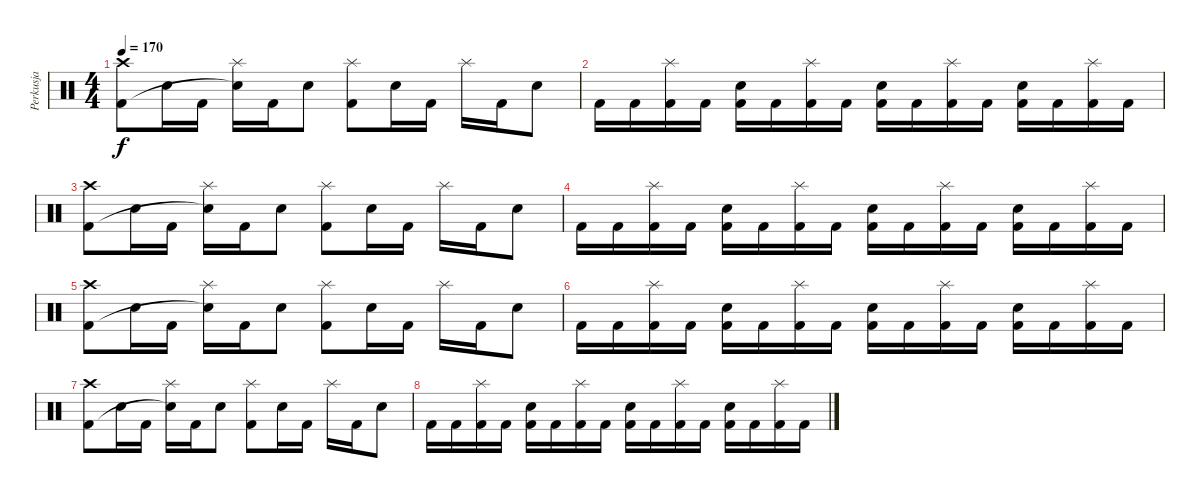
\track ("Perkusja" "Perkusja") {instrument percussion}
\staff {score}
\articulation defaults
\ts (4 4)
\tempo 170
\clef neutral
\ks c
("Crash high (hit)" "Kick (hit) 2").8{dy f} "Snare (hit) 2".16 "Kick (hit) 2".16 ("Splash (hit)" "Snare (hit)"{t}).16 "Kick (hit) 2".16 "Snare (hit) 2".8 ("Splash (hit)" "Kick (hit) 2").8 "Snare (hit) 2".16 "Kick (hit) 2".16 "Splash (hit)".16 "Kick (hit) 2".16 "Snare (hit) 2".8 |
"Kick (hit) 2".16 "Kick (hit) 2".16 ("Splash (hit)" "Kick (hit) 2").16 "Kick (hit) 2".16 ("Snare (hit) 2" "Kick (hit) 2").16 "Kick (hit) 2".16 ("Splash (hit)" "Kick (hit) 2").16 "Kick (hit) 2".16 ("Snare (hit) 2" "Kick (hit) 2").16 "Kick (hit) 2".16 ("Splash (hit)" "Kick (hit) 2").16 "Kick (hit) 2".16 ("Snare (hit) 2" "Kick (hit) 2").16 "Kick (hit) 2".16 ("Splash (hit)" "Kick (hit) 2").16 "Kick (hit) 2".16 |
("Crash high (hit)" "Kick (hit) 2").8 "Snare (hit) 2".16 "Kick (hit) 2".16 ("Splash (hit)" "Snare (hit)"{t}).16 "Kick (hit) 2".16 "Snare (hit) 2".8 ("Splash (hit)" "Kick (hit) 2").8 "Snare (hit) 2".16 "Kick (hit) 2".16 "Splash (hit)".16 "Kick (hit) 2".16 "Snare (hit) 2".8 |
"Kick (hit) 2".16 "Kick (hit) 2".16 ("Splash (hit)" "Kick (hit) 2").16 "Kick (hit) 2".16 ("Snare (hit) 2" "Kick (hit) 2").16 "Kick (hit) 2".16 ("Splash (hit)" "Kick (hit) 2").16 "Kick (hit) 2".16 ("Snare (hit) 2" "Kick (hit) 2").16 "Kick (hit) 2".16 ("Splash (hit)" "Kick (hit) 2").16 "Kick (hit) 2".16 ("Snare (hit) 2" "Kick (hit) 2").16 "Kick (hit) 2".16 ("Splash (hit)" "Kick (hit) 2").16 "Kick (hit) 2".16 |
("Crash high (hit)" "Kick (hit) 2").8 "Snare (hit) 2".16 "Kick (hit) 2".16 ("Splash (hit)" "Snare (hit)"{t}).16 "Kick (hit) 2".16 "Snare (hit) 2".8 ("Splash (hit)" "Kick (hit) 2").8 "Snare (hit) 2".16 "Kick (hit) 2".16 "Splash (hit)".16 "Kick (hit) 2".16 "Snare (hit) 2".8 |
"Kick (hit) 2".16 "Kick (hit) 2".16 ("Splash (hit)" "Kick (hit) 2").16 "Kick (hit) 2".16 ("Snare (hit) 2" "Kick (hit) 2").16 "Kick (hit) 2".16 ("Splash (hit)" "Kick (hit) 2").16 "Kick (hit) 2".16 ("Snare (hit) 2" "Kick (hit) 2").16 "Kick (hit) 2".16 ("Splash (hit)" "Kick (hit) 2").16 "Kick (hit) 2".16 ("Snare (hit) 2" "Kick (hit) 2").16 "Kick (hit) 2".16 ("Splash (hit)" "Kick (hit) 2").16 "Kick (hit) 2".16 |
("Crash high (hit)" "Kick (hit) 2").8 "Snare (hit) 2".16 "Kick (hit) 2".16 ("Splash (hit)" "Snare (hit)"{t}).16 "Kick (hit) 2".16 "Snare (hit) 2".8 ("Splash (hit)" "Kick (hit) 2").8 "Snare (hit) 2".16 "Kick (hit) 2".16 "Splash (hit)".16 "Kick (hit) 2".16 "Snare (hit) 2".8 |
"Kick (hit) 2".16 "Kick (hit) 2".16 ("Splash (hit)" "Kick (hit) 2").16 "Kick (hit) 2".16 ("Snare (hit) 2" "Kick (hit) 2").16 "Kick (hit) 2".16 ("Splash (hit)" "Kick (hit) 2").16 "Kick (hit) 2".16 ("Snare (hit) 2" "Kick (hit) 2").16 "Kick (hit) 2".16 ("Splash (hit)" "Kick (hit) 2").16 "Kick (hit) 2".16 ("Snare (hit) 2" "Kick (hit) 2").16 "Kick (hit) 2".16 ("Splash (hit)" "Kick (hit) 2").16 "Kick (hit) 2".16
